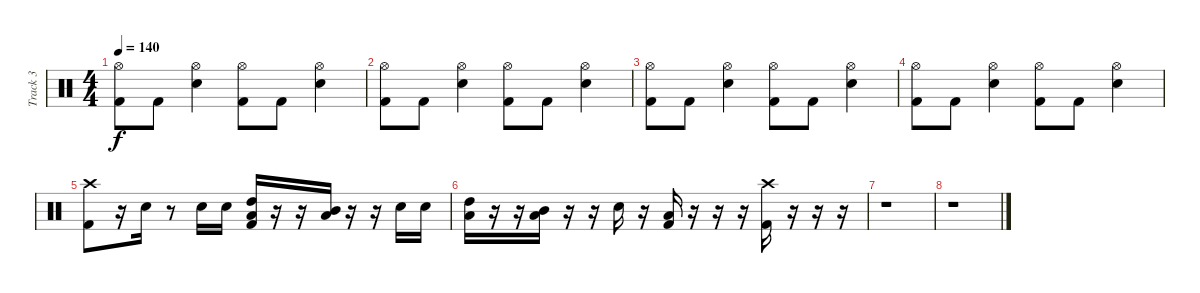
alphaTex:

\track ("Track 3" "Track 3") {instrument percussion}
\staff {score}
\articulation defaults
\ts (4 4)
\tempo 140
\clef neutral
\ks c
("Kick (hit) 2" "Hi-Hat (open)").8{dy f} "Kick (hit) 2".8 ("Electric Snare (hit)" "Hi-Hat (open)").4 ("Hi-Hat (open)" "Kick (hit) 2").8 "Kick (hit) 2".8 ("Hi-Hat (open)" "Electric Snare (hit)").4 |
("Kick (hit) 2" "Hi-Hat (open)").8 "Kick (hit) 2".8 ("Electric Snare (hit)" "Hi-Hat (open)").4 ("Hi-Hat (open)" "Kick (hit) 2").8 "Kick (hit) 2".8 ("Hi-Hat (open)" "Electric Snare (hit)").4 |
("Kick (hit) 2" "Hi-Hat (open)").8 "Kick (hit) 2".8 ("Electric Snare (hit)" "Hi-Hat (open)").4 ("Hi-Hat (open)" "Kick (hit) 2").8 "Kick (hit) 2".8 ("Hi-Hat (open)" "Electric Snare (hit)").4 |
("Kick (hit) 2" "Hi-Hat (open)").8 "Kick (hit) 2".8 ("Electric Snare (hit)" "Hi-Hat (open)").4 ("Hi-Hat (open)" "Kick (hit) 2").8 "Kick (hit) 2".8 ("Hi-Hat (open)" "Electric Snare (hit)").4 |
("Kick (hit) 2" "Crash high (hit)").8 r.16 "Electric Snare (hit)".16 r.8 "Electric Snare (hit)".16 "Electric Snare (hit)".16 ("High Tom (hit)" "Kick (hit) 2" "Low Floor Tom (hit)").16 r.16 r.16 ("Mid Tom (hit)" "Low Floor Tom (hit)").16 r.16 r.16 "Electric Snare (hit)".16 "Electric Snare (hit)".16 |
("High Tom (hit)" "Low Floor Tom (hit)").16 r.16 r.16 ("Mid Tom (hit)" "Low Floor Tom (hit)").16 r.16 r.16 "Electric Snare (hit)".16 r.16 ("Kick (hit) 2" "Low Floor Tom (hit)").16 r.16 r.16 r.16 ("Kick (hit) 2" "Crash high (hit)").16 r.16 r.16 r.16 |
r.1 |
r.1
